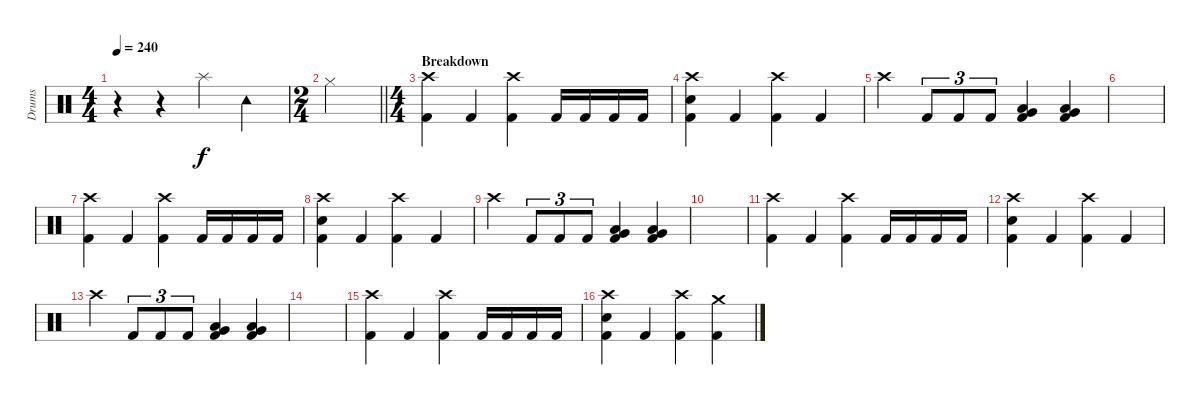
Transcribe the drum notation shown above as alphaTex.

\track ("Drums" "Drums") {instrument percussion}
\staff {score}
\articulation defaults
\ts (4 4)
\tempo 240
\clef neutral
\ks c
r.4{dy f} r.4 "Splash (hit)".4 "Tambourine (hit)".4 |
\ts (2 4)
\barLineRight lightlight "Hi-Hat (closed)".2
|
\ts (4 4)
\section ("" "Breakdown")
("Crash high (hit)" "Kick (hit) 2").4 "Kick (hit) 2".4 ("Crash high (hit)" "Kick (hit) 2").4 "Kick (hit) 2".16 "Kick (hit) 2".16 "Kick (hit) 2".16 "Kick (hit) 2".16 |
("Crash high (hit)" "Electric Snare (hit)" "Kick (hit) 2").4 "Kick (hit) 2".4 ("Crash high (hit)" "Kick (hit) 2").4 "Kick (hit) 2".4 |
"Crash high (hit)".4 "Kick (hit) 2".8{tu (3 2)} "Kick (hit) 2".8{tu (3 2)} "Kick (hit) 2".8{tu (3 2)} ("Low Floor Tom (hit)" "Very Low Tom (hit)" "Kick (hit) 2").4 ("Low Floor Tom (hit)" "Very Low Tom (hit)" "Kick (hit) 2").4 |
|
("Crash high (hit)" "Kick (hit) 2").4 "Kick (hit) 2".4 ("Crash high (hit)" "Kick (hit) 2").4 "Kick (hit) 2".16 "Kick (hit) 2".16 "Kick (hit) 2".16 "Kick (hit) 2".16 |
("Crash high (hit)" "Electric Snare (hit)" "Kick (hit) 2").4 "Kick (hit) 2".4 ("Crash high (hit)" "Kick (hit) 2").4 "Kick (hit) 2".4 |
"Crash high (hit)".4 "Kick (hit) 2".8{tu (3 2)} "Kick (hit) 2".8{tu (3 2)} "Kick (hit) 2".8{tu (3 2)} ("Low Floor Tom (hit)" "Very Low Tom (hit)" "Kick (hit) 2").4 ("Low Floor Tom (hit)" "Very Low Tom (hit)" "Kick (hit) 2").4 |
|
("Crash high (hit)" "Kick (hit) 2").4 "Kick (hit) 2".4 ("Crash high (hit)" "Kick (hit) 2").4 "Kick (hit) 2".16 "Kick (hit) 2".16 "Kick (hit) 2".16 "Kick (hit) 2".16 |
("Crash high (hit)" "Electric Snare (hit)" "Kick (hit) 2").4 "Kick (hit) 2".4 ("Crash high (hit)" "Kick (hit) 2").4 "Kick (hit) 2".4 |
"Crash high (hit)".4 "Kick (hit) 2".8{tu (3 2)} "Kick (hit) 2".8{tu (3 2)} "Kick (hit) 2".8{tu (3 2)} ("Low Floor Tom (hit)" "Very Low Tom (hit)" "Kick (hit) 2").4 ("Low Floor Tom (hit)" "Very Low Tom (hit)" "Kick (hit) 2").4 |
|
("Crash high (hit)" "Kick (hit) 2").4 "Kick (hit) 2".4 ("Crash high (hit)" "Kick (hit) 2").4 "Kick (hit) 2".16 "Kick (hit) 2".16 "Kick (hit) 2".16 "Kick (hit) 2".16 |
("Crash high (hit)" "Electric Snare (hit)" "Kick (hit) 2").4 "Kick (hit) 2".4 ("Crash high (hit)" "Kick (hit) 2").4 ("Crash medium (hit)" "Kick (hit) 2").4
